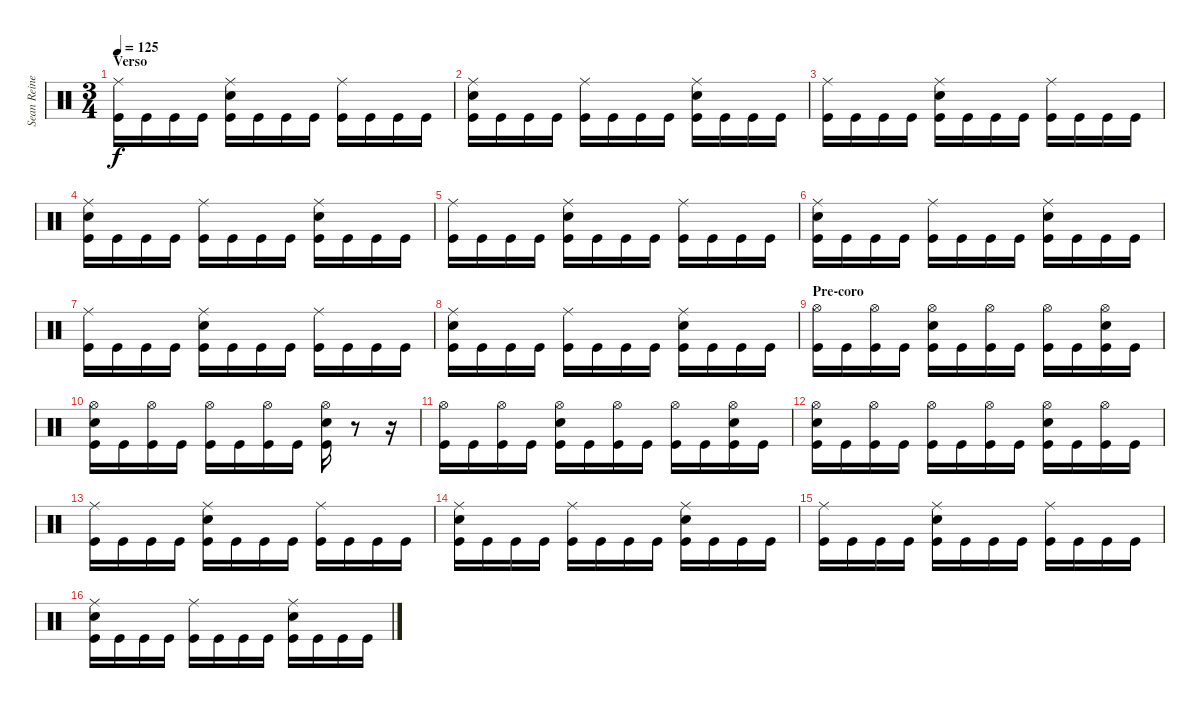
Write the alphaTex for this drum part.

\track ("Sean Reinert" "Sean Reine") {instrument percussion}
\staff {score}
\articulation defaults
\ts (3 4)
\section ("" "Verso")
\tempo 125
\clef neutral
\ks c
("Ride (middle)" "Kick (hit)").16{dy f} "Kick (hit)".16 "Kick (hit)".16 "Kick (hit)".16 ("Ride (middle)" "Snare (hit) 2" "Kick (hit)").16 "Kick (hit)".16 "Kick (hit)".16 "Kick (hit)".16 ("Ride (middle)" "Kick (hit)").16 "Kick (hit)".16 "Kick (hit)".16 "Kick (hit)".16 |
("Ride (middle)" "Snare (hit) 2" "Kick (hit)").16 "Kick (hit)".16 "Kick (hit)".16 "Kick (hit)".16 ("Ride (middle)" "Kick (hit)").16 "Kick (hit)".16 "Kick (hit)".16 "Kick (hit)".16 ("Ride (middle)" "Snare (hit) 2" "Kick (hit)").16 "Kick (hit)".16 "Kick (hit)".16 "Kick (hit)".16 |
("Ride (middle)" "Kick (hit)").16 "Kick (hit)".16 "Kick (hit)".16 "Kick (hit)".16 ("Ride (middle)" "Snare (hit) 2" "Kick (hit)").16 "Kick (hit)".16 "Kick (hit)".16 "Kick (hit)".16 ("Ride (middle)" "Kick (hit)").16 "Kick (hit)".16 "Kick (hit)".16 "Kick (hit)".16 |
("Ride (middle)" "Snare (hit) 2" "Kick (hit)").16 "Kick (hit)".16 "Kick (hit)".16 "Kick (hit)".16 ("Ride (middle)" "Kick (hit)").16 "Kick (hit)".16 "Kick (hit)".16 "Kick (hit)".16 ("Ride (middle)" "Snare (hit) 2" "Kick (hit)").16 "Kick (hit)".16 "Kick (hit)".16 "Kick (hit)".16 |
("Ride (middle)" "Kick (hit)").16 "Kick (hit)".16 "Kick (hit)".16 "Kick (hit)".16 ("Ride (middle)" "Snare (hit) 2" "Kick (hit)").16 "Kick (hit)".16 "Kick (hit)".16 "Kick (hit)".16 ("Ride (middle)" "Kick (hit)").16 "Kick (hit)".16 "Kick (hit)".16 "Kick (hit)".16 |
("Ride (middle)" "Snare (hit) 2" "Kick (hit)").16 "Kick (hit)".16 "Kick (hit)".16 "Kick (hit)".16 ("Ride (middle)" "Kick (hit)").16 "Kick (hit)".16 "Kick (hit)".16 "Kick (hit)".16 ("Ride (middle)" "Snare (hit) 2" "Kick (hit)").16 "Kick (hit)".16 "Kick (hit)".16 "Kick (hit)".16 |
("Ride (middle)" "Kick (hit)").16 "Kick (hit)".16 "Kick (hit)".16 "Kick (hit)".16 ("Ride (middle)" "Snare (hit) 2" "Kick (hit)").16 "Kick (hit)".16 "Kick (hit)".16 "Kick (hit)".16 ("Ride (middle)" "Kick (hit)").16 "Kick (hit)".16 "Kick (hit)".16 "Kick (hit)".16 |
("Ride (middle)" "Snare (hit) 2" "Kick (hit)").16 "Kick (hit)".16 "Kick (hit)".16 "Kick (hit)".16 ("Ride (middle)" "Kick (hit)").16 "Kick (hit)".16 "Kick (hit)".16 "Kick (hit)".16 ("Ride (middle)" "Snare (hit) 2" "Kick (hit)").16 "Kick (hit)".16 "Kick (hit)".16 "Kick (hit)".16 |
\section ("" "Pre-coro")
("Hi-Hat (open)" "Kick (hit)").16 "Kick (hit)".16 ("Hi-Hat (open)" "Kick (hit)").16 "Kick (hit)".16 ("Hi-Hat (open)" "Snare (hit) 2" "Kick (hit)").16 "Kick (hit)".16 ("Hi-Hat (open)" "Kick (hit)").16 "Kick (hit)".16 ("Hi-Hat (open)" "Kick (hit)").16 "Kick (hit)".16 ("Hi-Hat (open)" "Snare (hit) 2" "Kick (hit)").16 "Kick (hit)".16 |
("Hi-Hat (open)" "Snare (hit) 2" "Kick (hit)").16 "Kick (hit)".16 ("Hi-Hat (open)" "Kick (hit)").16 "Kick (hit)".16 ("Hi-Hat (open)" "Kick (hit)").16 "Kick (hit)".16 ("Hi-Hat (open)" "Kick (hit)").16 "Kick (hit)".16 ("Hi-Hat (open)" "Snare (hit) 2" "Kick (hit)").16 r.8 r.16 |
("Hi-Hat (open)" "Kick (hit)").16 "Kick (hit)".16 ("Hi-Hat (open)" "Kick (hit)").16 "Kick (hit)".16 ("Hi-Hat (open)" "Snare (hit) 2" "Kick (hit)").16 "Kick (hit)".16 ("Hi-Hat (open)" "Kick (hit)").16 "Kick (hit)".16 ("Hi-Hat (open)" "Kick (hit)").16 "Kick (hit)".16 ("Hi-Hat (open)" "Snare (hit) 2" "Kick (hit)").16 "Kick (hit)".16 |
("Hi-Hat (open)" "Snare (hit) 2" "Kick (hit)").16 "Kick (hit)".16 ("Hi-Hat (open)" "Kick (hit)").16 "Kick (hit)".16 ("Hi-Hat (open)" "Kick (hit)").16 "Kick (hit)".16 ("Hi-Hat (open)" "Kick (hit)").16 "Kick (hit)".16 ("Hi-Hat (open)" "Snare (hit) 2" "Kick (hit)").16 "Kick (hit)".16 ("Hi-Hat (open)" "Kick (hit)").16 "Kick (hit)".16 |
("Ride (middle)" "Kick (hit)").16 "Kick (hit)".16 "Kick (hit)".16 "Kick (hit)".16 ("Ride (middle)" "Snare (hit) 2" "Kick (hit)").16 "Kick (hit)".16 "Kick (hit)".16 "Kick (hit)".16 ("Ride (middle)" "Kick (hit)").16 "Kick (hit)".16 "Kick (hit)".16 "Kick (hit)".16 |
("Ride (middle)" "Snare (hit) 2" "Kick (hit)").16 "Kick (hit)".16 "Kick (hit)".16 "Kick (hit)".16 ("Ride (middle)" "Kick (hit)").16 "Kick (hit)".16 "Kick (hit)".16 "Kick (hit)".16 ("Ride (middle)" "Snare (hit) 2" "Kick (hit)").16 "Kick (hit)".16 "Kick (hit)".16 "Kick (hit)".16 |
("Ride (middle)" "Kick (hit)").16 "Kick (hit)".16 "Kick (hit)".16 "Kick (hit)".16 ("Ride (middle)" "Snare (hit) 2" "Kick (hit)").16 "Kick (hit)".16 "Kick (hit)".16 "Kick (hit)".16 ("Ride (middle)" "Kick (hit)").16 "Kick (hit)".16 "Kick (hit)".16 "Kick (hit)".16 |
("Ride (middle)" "Snare (hit) 2" "Kick (hit)").16 "Kick (hit)".16 "Kick (hit)".16 "Kick (hit)".16 ("Ride (middle)" "Kick (hit)").16 "Kick (hit)".16 "Kick (hit)".16 "Kick (hit)".16 ("Ride (middle)" "Snare (hit) 2" "Kick (hit)").16 "Kick (hit)".16 "Kick (hit)".16 "Kick (hit)".16
